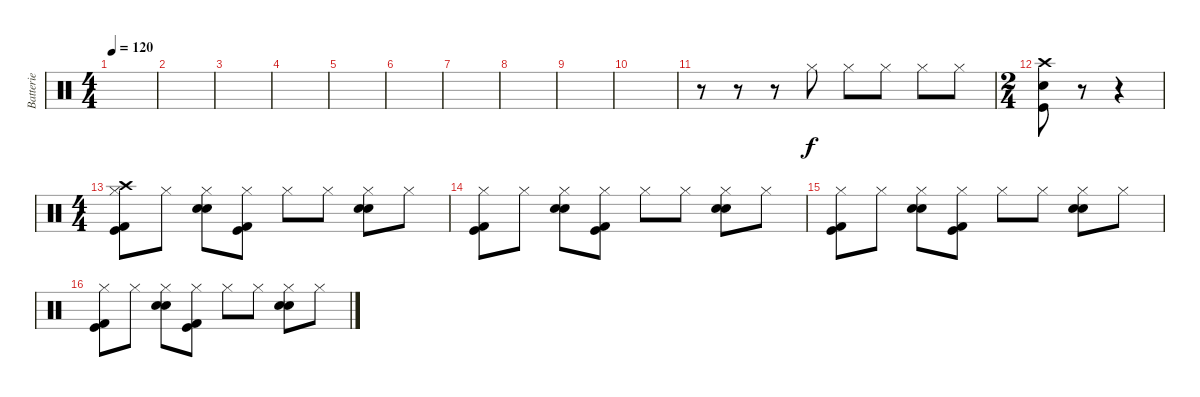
\track ("Batterie" "Batterie") {instrument percussion}
\staff {score}
\articulation defaults
\ts (4 4)
\tempo 120
\clef neutral
\ks c
|
|
|
|
|
|
|
|
|
|
r.8 r.8 r.8 "Hi-Hat (closed)".8 "Hi-Hat (closed)".8 "Hi-Hat (closed)".8 "Hi-Hat (closed)".8 "Hi-Hat (closed)".8 |
\ts (2 4)
("Crash high (hit)" "Electric Snare (hit)" "Kick (hit)").8 r.8 r.4 |
\ts (4 4)
("Crash high (hit)" "Hi-Hat (closed)" "Kick (hit)" "Kick (hit) 2").8 "Hi-Hat (closed)".8 ("Hi-Hat (closed)" "Electric Snare (hit)" "Electric Snare (hit)").8 ("Hi-Hat (closed)" "Kick (hit)" "Kick (hit) 2").8 "Hi-Hat (closed)".8 "Hi-Hat (closed)".8 ("Hi-Hat (closed)" "Electric Snare (hit)" "Electric Snare (hit)").8 "Hi-Hat (closed)".8 |
("Hi-Hat (closed)" "Kick (hit)" "Kick (hit) 2").8 "Hi-Hat (closed)".8 ("Hi-Hat (closed)" "Electric Snare (hit)" "Electric Snare (hit)").8 ("Hi-Hat (closed)" "Kick (hit)" "Kick (hit) 2").8 "Hi-Hat (closed)".8 "Hi-Hat (closed)".8 ("Hi-Hat (closed)" "Electric Snare (hit)" "Electric Snare (hit)").8 "Hi-Hat (closed)".8 |
("Hi-Hat (closed)" "Kick (hit)" "Kick (hit) 2").8 "Hi-Hat (closed)".8 ("Hi-Hat (closed)" "Electric Snare (hit)" "Electric Snare (hit)").8 ("Hi-Hat (closed)" "Kick (hit)" "Kick (hit) 2").8 "Hi-Hat (closed)".8 "Hi-Hat (closed)".8 ("Hi-Hat (closed)" "Electric Snare (hit)" "Electric Snare (hit)").8 "Hi-Hat (closed)".8 |
("Hi-Hat (closed)" "Kick (hit)" "Kick (hit) 2").8 "Hi-Hat (closed)".8 ("Hi-Hat (closed)" "Electric Snare (hit)" "Electric Snare (hit)").8 ("Hi-Hat (closed)" "Kick (hit)" "Kick (hit) 2").8 "Hi-Hat (closed)".8 "Hi-Hat (closed)".8 ("Hi-Hat (closed)" "Electric Snare (hit)" "Electric Snare (hit)").8 "Hi-Hat (closed)".8
